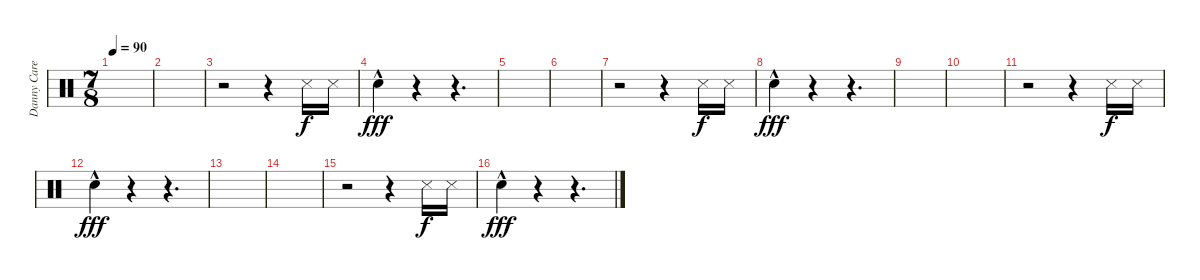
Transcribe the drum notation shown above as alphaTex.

\track ("Danny Carey" "Danny Care") {instrument percussion}
\staff {score}
\articulation defaults
\ts (7 8)
\tempo 90
\clef neutral
\ks c
|
|
r.2 r.4 "Snare (side stick) 3".16{dy f} "Snare (side stick) 3".16 |
"Hand Clap (hit)"{hac}.4{dy fff} r.4 r.4{d} |
|
|
r.2 r.4 "Snare (side stick) 3".16{dy f} "Snare (side stick) 3".16 |
"Hand Clap (hit)"{hac}.4{dy fff} r.4 r.4{d} |
|
|
r.2 r.4 "Snare (side stick) 3".16{dy f} "Snare (side stick) 3".16 |
"Hand Clap (hit)"{hac}.4{dy fff} r.4 r.4{d} |
|
|
r.2 r.4 "Snare (side stick) 3".16{dy f} "Snare (side stick) 3".16 |
"Hand Clap (hit)"{hac}.4{dy fff} r.4 r.4{d}
